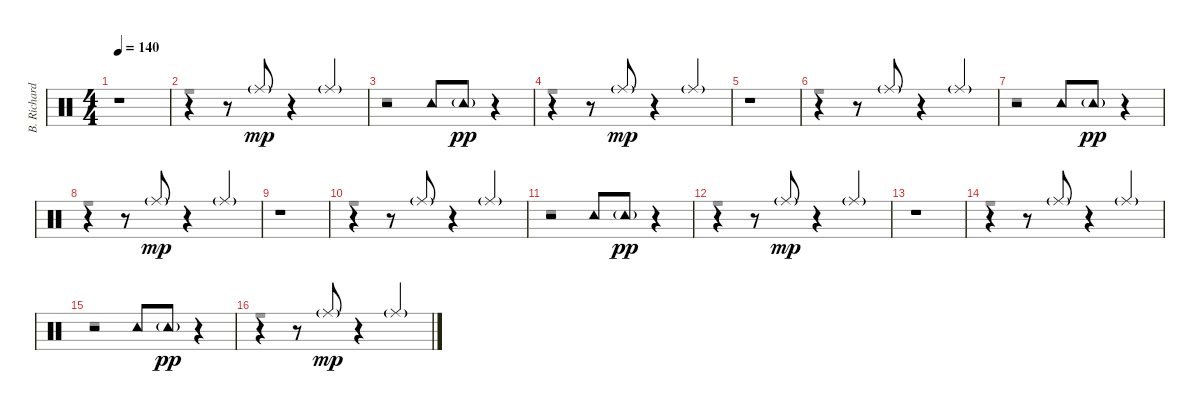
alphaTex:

\track ("B. Richardson Drums/Percussion" "B. Richard") {instrument percussion}
\staff {score}
\articulation defaults
\voice
\ts (4 4)
\tempo 140
\clef neutral
\ks c
r.1{dy mp} |
r.4 r.8 "Ride (middle)"{g}.8 r.4 "Ride (middle)"{g}.4 |
r.2 "Tambourine (hit)".8 "Tambourine (hit)"{g}.8{dy pp} r.4 |
r.4 r.8 "Ride (middle)"{g}.8{dy mp} r.4 "Ride (middle)"{g}.4 |
r.1 |
r.4 r.8 "Ride (middle)"{g}.8 r.4 "Ride (middle)"{g}.4 |
r.2 "Tambourine (hit)".8 "Tambourine (hit)"{g}.8{dy pp} r.4 |
r.4 r.8 "Ride (middle)"{g}.8{dy mp} r.4 "Ride (middle)"{g}.4 |
r.1 |
r.4 r.8 "Ride (middle)"{g}.8 r.4 "Ride (middle)"{g}.4 |
r.2 "Tambourine (hit)".8 "Tambourine (hit)"{g}.8{dy pp} r.4 |
r.4 r.8 "Ride (middle)"{g}.8{dy mp} r.4 "Ride (middle)"{g}.4 |
r.1 |
r.4 r.8 "Ride (middle)"{g}.8 r.4 "Ride (middle)"{g}.4 |
r.2 "Tambourine (hit)".8 "Tambourine (hit)"{g}.8{dy pp} r.4 |
r.4 r.8 "Ride (middle)"{g}.8{dy mp} r.4 "Ride (middle)"{g}.4
\voice
\clef neutral
\ottava regular
\simile none
\ks c
r.1{dy fff} |
r.1 |
r.1 |
r.1 |
r.1 |
r.1 |
r.1 |
r.1 |
r.1 |
r.1 |
r.1 |
r.1 |
r.1 |
r.1 |
r.1 |
r.1
